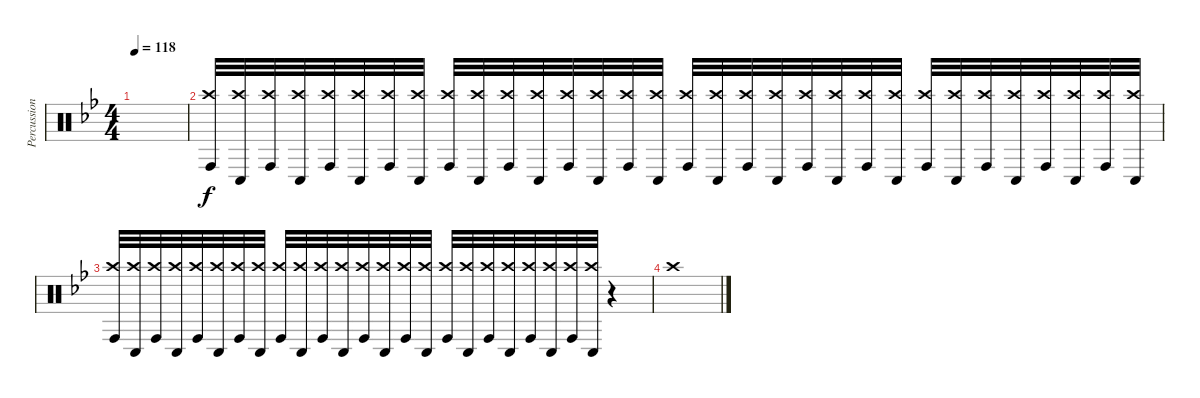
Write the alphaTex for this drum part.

\track ("Percussion" "Percussion") {instrument percussion}
\staff {score}
\articulation defaults
\ts (4 4)
\tempo 118
\clef neutral
\ks gminor
|
("Conga high (hit)" "Crash high (hit)").32{volume 0} ("Conga low (hit)" "Crash high (hit)").32{volume 1} ("Conga high (hit)" "Crash high (hit)").32{volume 2} ("Conga low (hit)" "Crash high (hit)").32{volume 3} ("Conga high (hit)" "Crash high (hit)").32{volume 4} ("Conga low (hit)" "Crash high (hit)").32{volume 5} ("Conga high (hit)" "Crash high (hit)").32{volume 6} ("Conga low (hit)" "Crash high (hit)").32{volume 7} ("Conga high (hit)" "Crash high (hit)").32{volume 8} ("Conga low (hit)" "Crash high (hit)").32{volume 9} ("Conga high (hit)" "Crash high (hit)").32{volume 10} ("Conga low (hit)" "Crash high (hit)").32{volume 11} ("Conga high (hit)" "Crash high (hit)").32{volume 12} ("Conga low (hit)" "Crash high (hit)").32{volume 12} ("Conga high (hit)" "Crash high (hit)").32{volume 12} ("Conga low (hit)" "Crash high (hit)").32{volume 12} ("Conga high (hit)" "Crash high (hit)").32{volume 12} ("Conga low (hit)" "Crash high (hit)").32{volume 12} ("Conga high (hit)" "Crash high (hit)").32{volume 12} ("Conga low (hit)" "Crash high (hit)").32{volume 12} ("Conga high (hit)" "Crash high (hit)").32 ("Conga low (hit)" "Crash high (hit)").32 ("Conga high (hit)" "Crash high (hit)").32 ("Conga low (hit)" "Crash high (hit)").32 ("Conga high (hit)" "Crash high (hit)").32 ("Conga low (hit)" "Crash high (hit)").32 ("Conga high (hit)" "Crash high (hit)").32 ("Conga low (hit)" "Crash high (hit)").32 ("Conga high (hit)" "Crash high (hit)").32 ("Conga low (hit)" "Crash high (hit)").32 ("Conga high (hit)" "Crash high (hit)").32 ("Conga low (hit)" "Crash high (hit)").32 |
("Conga high (hit)" "Crash high (hit)").32 ("Conga low (hit)" "Crash high (hit)").32 ("Conga high (hit)" "Crash high (hit)").32 ("Conga low (hit)" "Crash high (hit)").32 ("Conga high (hit)" "Crash high (hit)").32 ("Conga low (hit)" "Crash high (hit)").32 ("Conga high (hit)" "Crash high (hit)").32 ("Conga low (hit)" "Crash high (hit)").32 ("Conga high (hit)" "Crash high (hit)").32 ("Conga low (hit)" "Crash high (hit)").32 ("Conga high (hit)" "Crash high (hit)").32 ("Conga low (hit)" "Crash high (hit)").32 ("Conga high (hit)" "Crash high (hit)").32{volume 11} ("Conga low (hit)" "Crash high (hit)").32{volume 10} ("Conga high (hit)" "Crash high (hit)").32{volume 9} ("Conga low (hit)" "Crash high (hit)").32{volume 8} ("Conga high (hit)" "Crash high (hit)").32{volume 7} ("Conga low (hit)" "Crash high (hit)").32{volume 6} ("Conga high (hit)" "Crash high (hit)").32{volume 5} ("Conga low (hit)" "Crash high (hit)").32{volume 4} ("Conga high (hit)" "Crash high (hit)").32{volume 3} ("Conga low (hit)" "Crash high (hit)").32{volume 2} ("Conga high (hit)" "Crash high (hit)").32{volume 1} ("Conga low (hit)" "Crash high (hit)").32{volume 0} r.4 |
"Crash high (hit)".1
